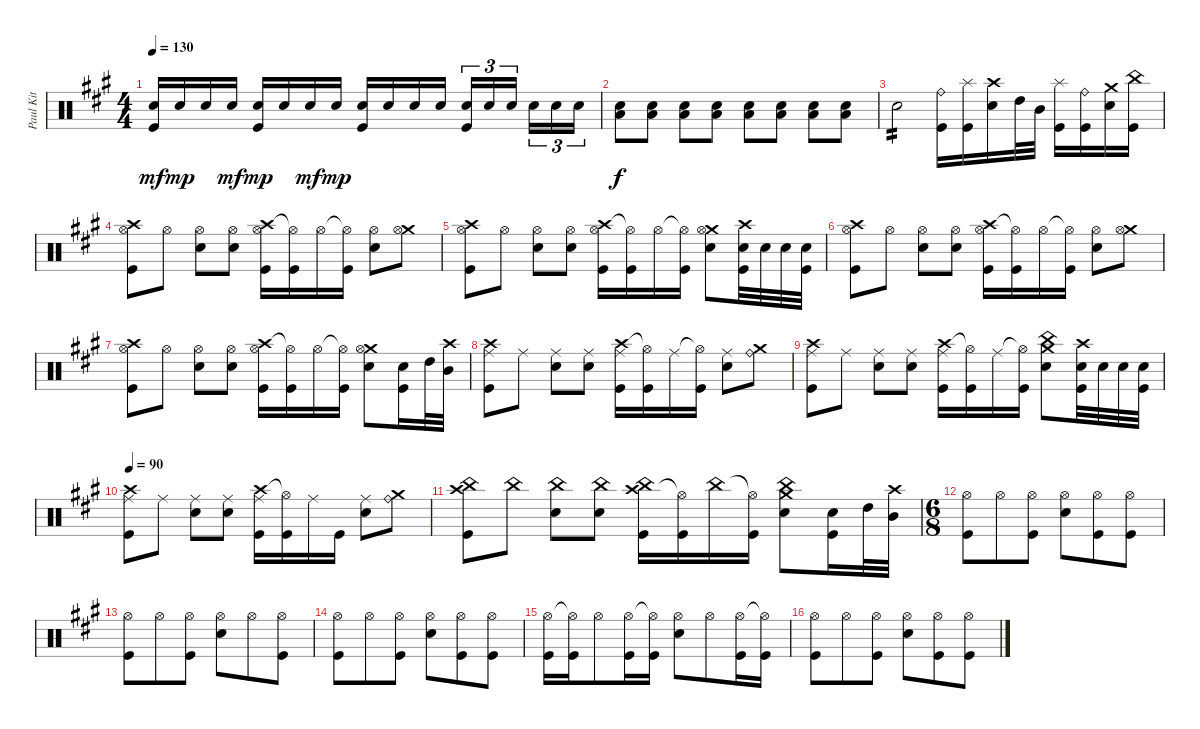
\track ("Paul Kit" "Paul Kit") {instrument percussion}
\staff {score}
\articulation defaults
\ts (4 4)
\tempo 130
\clef neutral
\ks a
("Snare (hit) 2" "Kick (hit)").16{dy mf} "Snare (hit) 2".16{dy mp} "Snare (hit) 2".16 "Electric Snare (hit)".16{dy mf} ("Snare (hit) 2" "Kick (hit)").16{dy mp} "Snare (hit) 2".16 "Electric Snare (hit)".16{dy mf} "Snare (hit) 2".16{dy mp} ("Snare (hit) 2" "Kick (hit)").16 "Snare (hit) 2".16 "Snare (hit) 2".16 "Snare (hit) 2".16 ("Snare (hit) 2" "Kick (hit)").16{tu (3 2)} "Snare (hit) 2".16{tu (3 2)} "Snare (hit) 2".16{tu (3 2)} "Snare (hit) 2".16{tu (3 2)} "Snare (hit) 2".16{tu (3 2)} "Snare (hit) 2".16{tu (3 2)} |
("Low Tom (hit)" "Snare (hit) 2").8{dy f} ("Low Tom (hit)" "Snare (hit) 2").8 ("Low Tom (hit)" "Snare (hit) 2").8 ("Low Tom (hit)" "Snare (hit) 2").8 ("Low Tom (hit)" "Snare (hit) 2").8 ("Low Tom (hit)" "Snare (hit) 2").8 ("Low Tom (hit)" "Snare (hit) 2").8 ("Low Tom (hit)" "Snare (hit) 2").8 |
"Electric Snare (hit)".2{tp 2} ("Ride (bell)" "Kick (hit)").16 ("Splash (hit)" "Kick (hit)").16 ("Crash high (hit)" "Snare (hit) 2").16 "High Tom (hit)".32 "Mid Tom (hit)".32 ("Splash (hit)" "Kick (hit)").16 ("Ride (bell)" "Kick (hit)").16 ("Crash medium (hit)" "Snare (hit) 2").16 ("China (hit)" "Kick (hit)").16 |
("Crash high (hit)" "Hi-Hat (open)" "Kick (hit)").8 "Hi-Hat (open)".8 ("Hi-Hat (open)" "Snare (hit) 2").8 ("Hi-Hat (open)" "Snare (hit) 2").8 ("Crash high (hit)" "Hi-Hat (open)" "Kick (hit)").16 ("Hi-Hat (open)"{t} "Kick (hit)").16 "Hi-Hat (open)".16 ("Hi-Hat (open)"{t} "Kick (hit)").16 ("Hi-Hat (open)" "Snare (hit) 2").8 ("Crash medium (hit)" "Hi-Hat (open)").8 |
("Crash high (hit)" "Hi-Hat (open)" "Kick (hit)").8 "Hi-Hat (open)".8 ("Hi-Hat (open)" "Snare (hit) 2").8 ("Hi-Hat (open)" "Snare (hit) 2").8 ("Crash high (hit)" "Hi-Hat (open)" "Kick (hit)").16 ("Hi-Hat (open)"{t} "Kick (hit)").16 "Hi-Hat (open)".16 ("Hi-Hat (open)"{t} "Kick (hit)").16 ("Crash medium (hit)" "Hi-Hat (open)" "Snare (hit) 2").8 ("Crash high (hit)" "Snare (hit) 2" "Kick (hit)").32 "Snare (hit) 2".32 "Snare (hit) 2".32 ("Snare (hit) 2" "Kick (hit)").32 |
("Crash high (hit)" "Hi-Hat (open)" "Kick (hit)").8 "Hi-Hat (open)".8 ("Hi-Hat (open)" "Snare (hit) 2").8 ("Hi-Hat (open)" "Snare (hit) 2").8 ("Crash high (hit)" "Hi-Hat (open)" "Kick (hit)").16 ("Hi-Hat (open)"{t} "Kick (hit)").16 "Hi-Hat (open)".16 ("Hi-Hat (open)"{t} "Kick (hit)").16 ("Hi-Hat (open)" "Snare (hit) 2").8 ("Crash medium (hit)" "Hi-Hat (open)").8 |
("Crash high (hit)" "Hi-Hat (open)" "Kick (hit)").8 "Hi-Hat (open)".8 ("Hi-Hat (open)" "Snare (hit) 2").8 ("Hi-Hat (open)" "Snare (hit) 2").8 ("Crash high (hit)" "Hi-Hat (open)" "Kick (hit)").16 ("Hi-Hat (open)"{t} "Kick (hit)").16 "Hi-Hat (open)".16 ("Hi-Hat (open)"{t} "Kick (hit)").16 ("Crash medium (hit)" "Hi-Hat (open)" "Snare (hit) 2").8 ("Snare (hit) 2" "Kick (hit)").16 "High Tom (hit)".32 ("Crash high (hit)" "Mid Tom (hit)").32 |
("Crash high (hit)" "Ride (middle)" "Kick (hit)").8 "Ride (middle)".8 ("Ride (middle)" "Snare (hit) 2").8 ("Ride (middle)" "Snare (hit) 2").8 ("Crash high (hit)" "Ride (middle)" "Kick (hit)").16 ("Hi-Hat (open)"{t} "Kick (hit)").16 "Ride (middle)".16 ("Hi-Hat (open)"{t} "Kick (hit)").16 ("Ride (middle)" "Snare (hit) 2").8 ("Crash medium (hit)" "Ride (bell)").8 |
("Crash high (hit)" "Ride (middle)" "Kick (hit)").8 "Ride (middle)".8 ("Ride (middle)" "Snare (hit) 2").8 ("Ride (middle)" "Snare (hit) 2").8 ("Crash high (hit)" "Ride (middle)" "Kick (hit)").16 ("Hi-Hat (open)"{t} "Kick (hit)").16 "Ride (middle)".16 ("Hi-Hat (open)"{t} "Kick (hit)").16 ("Crash medium (hit)" "China (hit)" "Snare (hit) 2").8 ("Crash high (hit)" "Snare (hit) 2" "Kick (hit)").32 "Snare (hit) 2".32 "Snare (hit) 2".32 ("Snare (hit) 2" "Kick (hit)").32 |
\tempo 90
("Crash high (hit)" "Ride (middle)" "Kick (hit)").8 "Ride (middle)".8 ("Ride (middle)" "Snare (hit) 2").8 ("Ride (middle)" "Snare (hit) 2").8 ("Crash high (hit)" "Ride (middle)" "Kick (hit)").16 ("Hi-Hat (open)"{t} "Kick (hit)").16 "Ride (middle)".16 "Kick (hit)".16 ("Ride (middle)" "Snare (hit) 2").8 ("Crash medium (hit)" "Ride (bell)").8 |
("Crash high (hit)" "China (hit)" "Kick (hit)").8 "China (hit)".8 ("China (hit)" "Snare (hit) 2").8 ("China (hit)" "Snare (hit) 2").8 ("Crash high (hit)" "China (hit)" "Kick (hit)").16 ("Hi-Hat (open)"{t} "Kick (hit)").16 "China (hit)".16 ("Hi-Hat (open)"{t} "Kick (hit)").16 ("Crash medium (hit)" "China (hit)" "Snare (hit) 2").8 ("Snare (hit) 2" "Kick (hit)").16 "High Tom (hit)".32 ("Crash high (hit)" "Mid Tom (hit)").32 |
\ts (6 8)
("Hi-Hat (open)" "Kick (hit)").8 "Hi-Hat (open)".8 ("Hi-Hat (open)" "Kick (hit)").8 ("Hi-Hat (open)" "Snare (hit) 2").8 ("Hi-Hat (open)" "Kick (hit)").8 ("Hi-Hat (open)" "Kick (hit)").8 |
("Hi-Hat (open)" "Kick (hit)").8 "Hi-Hat (open)".8 ("Hi-Hat (open)" "Kick (hit)").8 ("Hi-Hat (open)" "Snare (hit) 2").8 "Hi-Hat (open)".8 ("Hi-Hat (open)" "Kick (hit)").8 |
("Hi-Hat (open)" "Kick (hit)").8 "Hi-Hat (open)".8 ("Hi-Hat (open)" "Kick (hit)").8 ("Hi-Hat (open)" "Snare (hit) 2").8 ("Hi-Hat (open)" "Kick (hit)").8 ("Hi-Hat (open)" "Kick (hit)").8 |
("Hi-Hat (open)" "Kick (hit)").16 ("Hi-Hat (open)"{t} "Kick (hit)").16 "Hi-Hat (open)".8 ("Hi-Hat (open)" "Kick (hit)").16 ("Hi-Hat (open)"{t} "Kick (hit)").16 ("Hi-Hat (open)" "Snare (hit) 2").8 "Hi-Hat (open)".8 ("Hi-Hat (open)" "Kick (hit)").16 ("Hi-Hat (open)"{t} "Kick (hit)").16 |
("Hi-Hat (open)" "Kick (hit)").8 "Hi-Hat (open)".8 ("Hi-Hat (open)" "Kick (hit)").8 ("Hi-Hat (open)" "Snare (hit) 2").8 ("Hi-Hat (open)" "Kick (hit)").8 ("Hi-Hat (open)" "Kick (hit)").8
